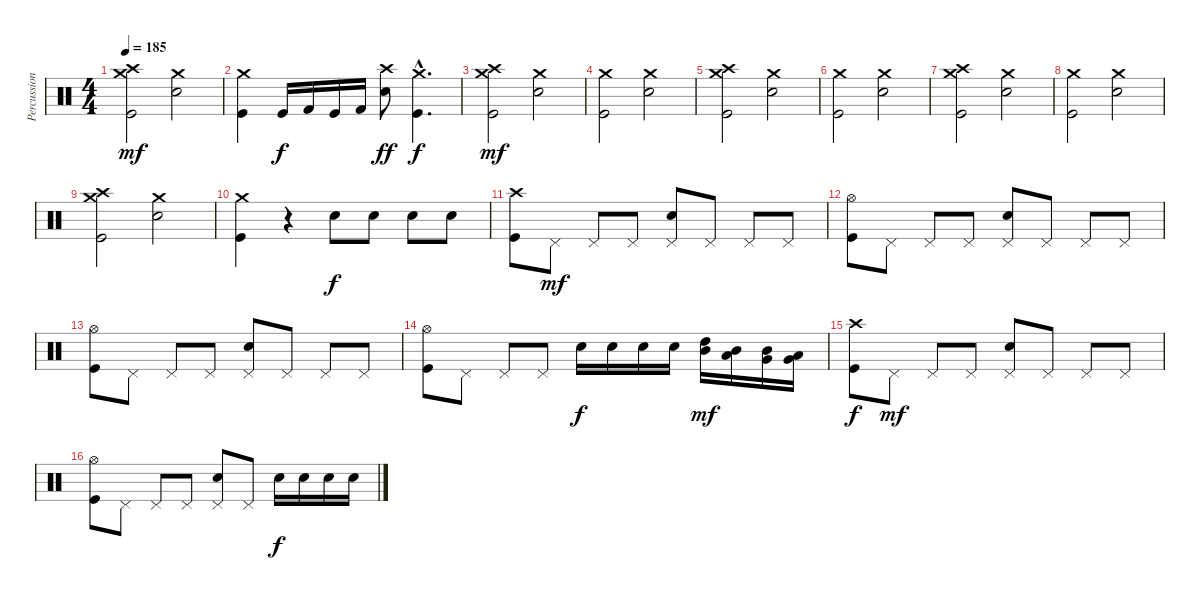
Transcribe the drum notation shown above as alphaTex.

\track ("Percussions" "Percussion") {instrument percussion}
\staff {score}
\articulation defaults
\ts (4 4)
\tempo 185
\clef neutral
\ks c
("Kick (hit)" "Crash medium (hit)" "Crash high (hit)").2{dy mf} ("Electric Snare (hit)" "Crash medium (hit)").2 |
("Kick (hit)" "Crash medium (hit)").4 "Kick (hit)".16{dy f} "Kick (hit) 2".16 "Kick (hit)".16 "Kick (hit) 2".16 ("Electric Snare (hit)" "Crash high (hit)").8{dy ff} ("Kick (hit)"{hac} "Crash medium (hit)"{hac}).4{d dy f} |
("Kick (hit)" "Crash medium (hit)" "Crash high (hit)").2{dy mf} ("Electric Snare (hit)" "Crash medium (hit)").2 |
("Kick (hit)" "Crash medium (hit)").2 ("Electric Snare (hit)" "Crash medium (hit)").2 |
("Kick (hit)" "Crash medium (hit)" "Crash high (hit)").2 ("Electric Snare (hit)" "Crash medium (hit)").2 |
("Kick (hit)" "Crash medium (hit)").2 ("Electric Snare (hit)" "Crash medium (hit)").2 |
("Kick (hit)" "Crash medium (hit)" "Crash high (hit)").2 ("Electric Snare (hit)" "Crash medium (hit)").2 |
("Kick (hit)" "Crash medium (hit)").2 ("Electric Snare (hit)" "Crash medium (hit)").2 |
("Kick (hit)" "Crash medium (hit)" "Crash high (hit)").2 ("Electric Snare (hit)" "Crash medium (hit)").2 |
("Kick (hit)" "Crash medium (hit)").4 r.4 "Electric Snare (hit)".8{dy f} "Electric Snare (hit)".8 "Electric Snare (hit)".8 "Electric Snare (hit)".8 |
("Kick (hit)" "Crash high (hit)").8 "Pedal Hi-Hat (hit)".8{dy mf} "Pedal Hi-Hat (hit)".8 "Pedal Hi-Hat (hit)".8 ("Electric Snare (hit)" "Pedal Hi-Hat (hit)").8 "Pedal Hi-Hat (hit)".8 "Pedal Hi-Hat (hit)".8 "Pedal Hi-Hat (hit)".8 |
("Kick (hit)" "Hi-Hat (open)").8 "Pedal Hi-Hat (hit)".8 "Pedal Hi-Hat (hit)".8 "Pedal Hi-Hat (hit)".8 ("Electric Snare (hit)" "Pedal Hi-Hat (hit)").8 "Pedal Hi-Hat (hit)".8 "Pedal Hi-Hat (hit)".8 "Pedal Hi-Hat (hit)".8 |
("Kick (hit)" "Hi-Hat (open)").8 "Pedal Hi-Hat (hit)".8 "Pedal Hi-Hat (hit)".8 "Pedal Hi-Hat (hit)".8 ("Electric Snare (hit)" "Pedal Hi-Hat (hit)").8 "Pedal Hi-Hat (hit)".8 "Pedal Hi-Hat (hit)".8 "Pedal Hi-Hat (hit)".8 |
("Kick (hit)" "Hi-Hat (open)").8 "Pedal Hi-Hat (hit)".8 "Pedal Hi-Hat (hit)".8 "Pedal Hi-Hat (hit)".8 "Electric Snare (hit)".16{dy f} "Electric Snare (hit)".16 "Electric Snare (hit)".16 "Electric Snare (hit)".16 ("Mid Tom (hit)" "High Tom (hit)").16{dy mf} ("Low Tom (hit)" "Mid Tom (hit)").16 ("Very Low Tom (hit)" "Mid Tom (hit)").16 ("Very Low Tom (hit)" "Low Tom (hit)").16 |
("Kick (hit)" "Crash high (hit)").8{dy f} "Pedal Hi-Hat (hit)".8{dy mf} "Pedal Hi-Hat (hit)".8 "Pedal Hi-Hat (hit)".8 ("Electric Snare (hit)" "Pedal Hi-Hat (hit)").8 "Pedal Hi-Hat (hit)".8 "Pedal Hi-Hat (hit)".8 "Pedal Hi-Hat (hit)".8 |
("Kick (hit)" "Hi-Hat (open)").8 "Pedal Hi-Hat (hit)".8 "Pedal Hi-Hat (hit)".8 "Pedal Hi-Hat (hit)".8 ("Electric Snare (hit)" "Pedal Hi-Hat (hit)").8 "Pedal Hi-Hat (hit)".8 "Electric Snare (hit)".16{dy f} "Electric Snare (hit)".16 "Electric Snare (hit)".16 "Electric Snare (hit)".16
